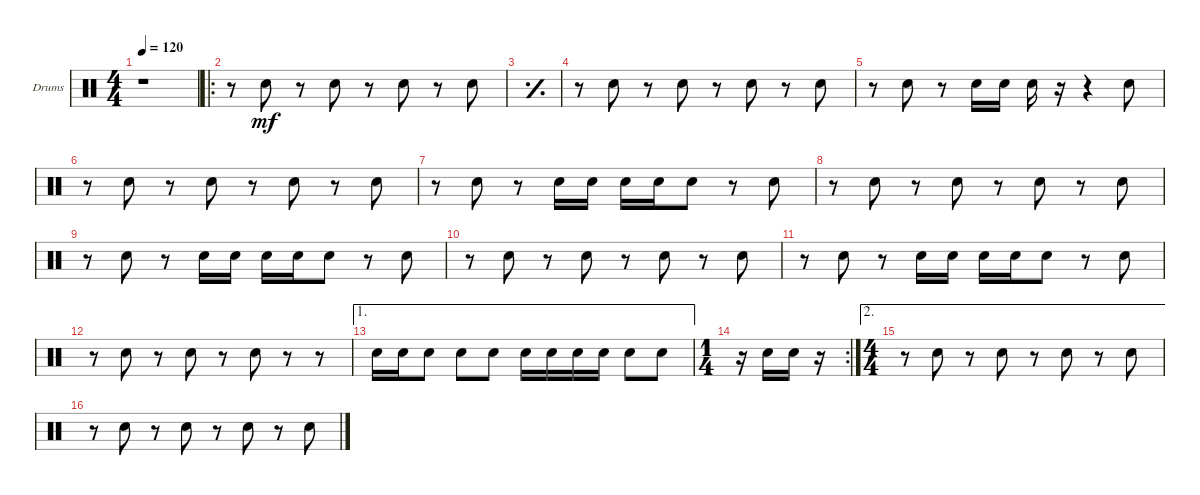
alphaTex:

\bracketExtendMode groupsimilarinstruments
\firstSystemTrackNameOrientation horizontal
\otherSystemsTrackNameOrientation horizontal
\track ("Drumkit" "Drums") {instrument percussion}
\staff {score}
\articulation defaults
\ts (4 4)
\tempo 120
\clef neutral
\ks c
r.1{dy mf} |
\ro
r.8 "Snare (hit) 2".8 r.8 "Snare (hit) 2".8 r.8 "Snare (hit) 2".8 r.8 "Snare (hit) 2".8 |
\simile simple
\scale
0.263889 |
\simile none
\scale
0.333333 r.8 "Snare (hit) 2".8 r.8 "Snare (hit) 2".8 r.8 "Snare (hit) 2".8 r.8 "Snare (hit) 2".8 |
\scale
0.333333 r.8 "Snare (hit) 2".8 r.8 "Snare (hit) 2".16 "Snare (hit) 2".16 "Snare (hit) 2".16 r.16 r.4 "Snare (hit) 2".8 |
\scale
0.333333 r.8 "Snare (hit) 2".8 r.8 "Snare (hit) 2".8 r.8 "Snare (hit) 2".8 r.8 "Snare (hit) 2".8 |
\scale
0.333333 r.8 "Snare (hit) 2".8 r.8 "Snare (hit) 2".16 "Snare (hit) 2".16 "Snare (hit) 2".16 "Snare (hit) 2".16 "Snare (hit) 2".8 r.8 "Snare (hit) 2".8 |
r.8 "Snare (hit) 2".8 r.8 "Snare (hit) 2".8 r.8 "Snare (hit) 2".8 r.8 "Snare (hit) 2".8 |
r.8 "Snare (hit) 2".8 r.8 "Snare (hit) 2".16 "Snare (hit) 2".16 "Snare (hit) 2".16 "Snare (hit) 2".16 "Snare (hit) 2".8 r.8 "Snare (hit) 2".8 |
\scale
0.333333 r.8 "Snare (hit) 2".8 r.8 "Snare (hit) 2".8 r.8 "Snare (hit) 2".8 r.8 "Snare (hit) 2".8 |
\scale
0.333333 r.8 "Snare (hit) 2".8 r.8 "Snare (hit) 2".16 "Snare (hit) 2".16 "Snare (hit) 2".16 "Snare (hit) 2".16 "Snare (hit) 2".8 r.8 "Snare (hit) 2".8 |
r.8 "Snare (hit) 2".8 r.8 "Snare (hit) 2".8 r.8 "Snare (hit) 2".8 r.8 r.8 |
\ae 1 "Snare (hit) 2".16 "Snare (hit) 2".16 "Snare (hit) 2".8 "Snare (hit) 2".8 "Snare (hit) 2".8 "Snare (hit) 2".16 "Snare (hit) 2".16 "Snare (hit) 2".16 "Snare (hit) 2".16 "Snare (hit) 2".8 "Snare (hit) 2".8
|
\rc 2
\ts (1 4)
r.16 "Snare (hit) 2".16 "Snare (hit) 2".16 r.16 |
\ae 2
\ts (4 4)
\scale
0.333333 r.8 "Snare (hit) 2".8 r.8 "Snare (hit) 2".8 r.8 "Snare (hit) 2".8 r.8 "Snare (hit) 2".8 |
\scale
0.333333 r.8 "Snare (hit) 2".8 r.8 "Snare (hit) 2".8 r.8 "Snare (hit) 2".8 r.8 "Snare (hit) 2".8
